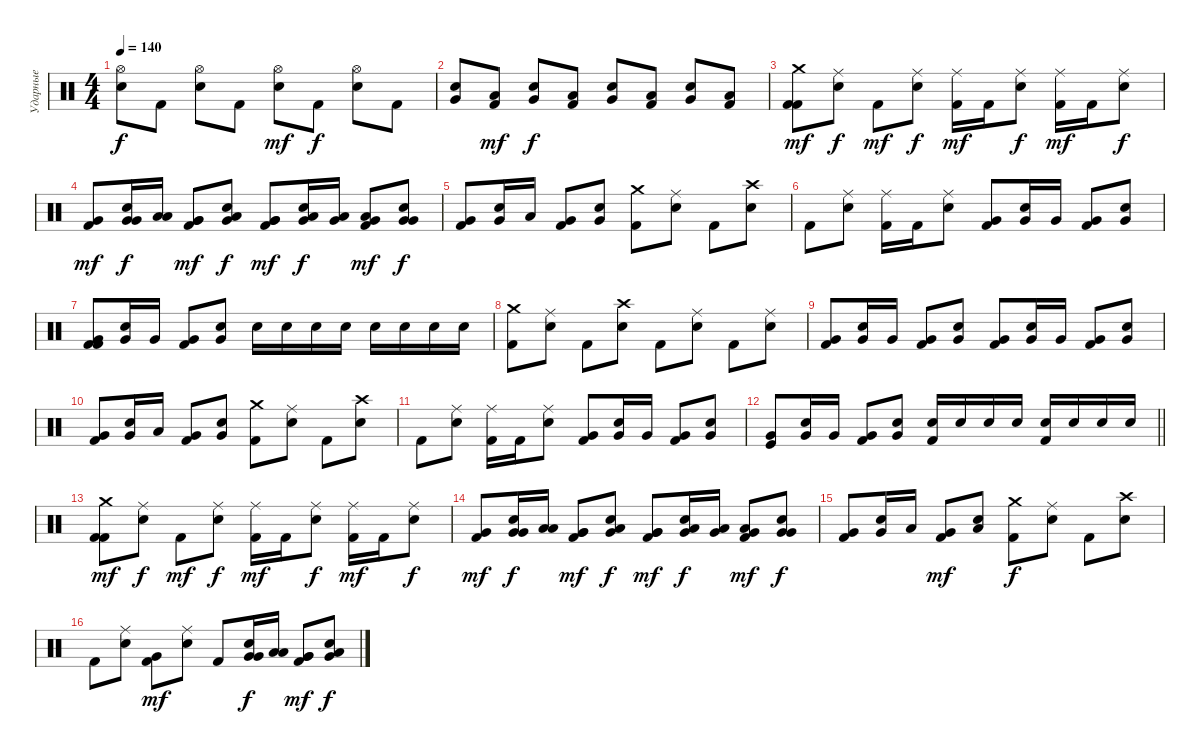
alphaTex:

\track ("Ударные" "Ударные") {instrument percussion}
\staff {score}
\articulation defaults
\ts (4 4)
\tempo 140
\clef neutral
\ks c
("Hi-Hat (open)" "Snare (hit) 2").8{dy f} "Kick (hit) 2".8 ("Hi-Hat (open)" "Snare (hit) 2").8 "Kick (hit) 2".8 ("Hi-Hat (open)" "Snare (hit) 2").8{dy mf} "Kick (hit) 2".8{dy f} ("Hi-Hat (open)" "Snare (hit) 2").8 "Kick (hit) 2".8 |
("Very Low Tom (hit)" "Snare (hit) 2").8 ("Low Tom (hit)" "Kick (hit) 2").8{dy mf} ("Very Low Tom (hit)" "Snare (hit) 2").8{dy f} ("Low Tom (hit)" "Kick (hit) 2").8 ("Very Low Tom (hit)" "Snare (hit) 2").8 ("Low Tom (hit)" "Kick (hit) 2").8 ("Very Low Tom (hit)" "Snare (hit) 2").8 ("Low Tom (hit)" "Kick (hit) 2").8 |
("Crash medium (hit)" "Kick (hit) 2" "Kick (hit) 2").8{dy mf} ("Ride (middle)" "Snare (hit) 2").8{dy f} "Kick (hit) 2".8{dy mf} ("Ride (middle)" "Snare (hit) 2").8{dy f} ("Ride (middle)" "Kick (hit) 2").16{dy mf} "Kick (hit) 2".16 ("Ride (middle)" "Snare (hit) 2").8{dy f} ("Ride (middle)" "Kick (hit) 2").16{dy mf} "Kick (hit) 2".16 ("Ride (middle)" "Snare (hit) 2").8{dy f} |
("Very Low Tom (hit)" "Kick (hit) 2").8{dy mf} ("Very Low Tom (hit)" "Very Low Tom (hit)" "Snare (hit) 2").16{dy f} ("Low Tom (hit)" "Low Tom (hit)").16 ("Very Low Tom (hit)" "Very Low Tom (hit)" "Kick (hit) 2").8{dy mf} ("Very Low Tom (hit)" "Low Tom (hit)" "Snare (hit) 2").8{dy f} ("Very Low Tom (hit)" "Very Low Tom (hit)" "Kick (hit) 2").8{dy mf} ("Very Low Tom (hit)" "Low Tom (hit)" "Snare (hit) 2").16{dy f} ("Low Tom (hit)" "Very Low Tom (hit)").16 ("Very Low Tom (hit)" "Low Tom (hit)" "Kick (hit) 2").8{dy mf} ("Very Low Tom (hit)" "Very Low Tom (hit)" "Snare (hit) 2").8{dy f} |
("Very Low Tom (hit)" "Kick (hit) 2").8 ("Very Low Tom (hit)" "Snare (hit) 2").16 "Low Tom (hit)".16 ("Very Low Tom (hit)" "Kick (hit) 2").8 ("Very Low Tom (hit)" "Snare (hit) 2").8 ("Crash medium (hit)" "Kick (hit) 2").8 ("Ride (middle)" "Snare (hit) 2").8 "Kick (hit) 2".8 ("Crash high (hit)" "Snare (hit) 2").8 |
"Kick (hit) 2".8 ("Ride (middle)" "Snare (hit) 2").8 ("Ride (middle)" "Kick (hit) 2").16 "Kick (hit) 2".16 ("Ride (middle)" "Snare (hit) 2").8 ("Very Low Tom (hit)" "Kick (hit) 2").8 ("Very Low Tom (hit)" "Snare (hit) 2").16 "Very Low Tom (hit)".16 ("Very Low Tom (hit)" "Kick (hit) 2").8 ("Very Low Tom (hit)" "Snare (hit) 2").8 |
("Very Low Tom (hit)" "Kick (hit) 2" "Kick (hit) 2").8 ("Very Low Tom (hit)" "Snare (hit) 2").16 "Very Low Tom (hit)".16 ("Very Low Tom (hit)" "Kick (hit) 2").8 ("Very Low Tom (hit)" "Snare (hit) 2").8 "Snare (hit) 2".16 "Snare (hit) 2".16 "Snare (hit) 2".16 "Snare (hit) 2".16 "Snare (hit) 2".16 "Snare (hit) 2".16 "Snare (hit) 2".16 "Snare (hit) 2".16 |
("Crash medium (hit)" "Kick (hit) 2").8 ("Ride (middle)" "Snare (hit) 2").8 "Kick (hit) 2".8 ("Crash high (hit)" "Snare (hit) 2").8 "Kick (hit) 2".8 ("Ride (middle)" "Snare (hit) 2").8 "Kick (hit) 2".8 ("Ride (middle)" "Snare (hit) 2").8 |
("Very Low Tom (hit)" "Kick (hit) 2").8 ("Very Low Tom (hit)" "Snare (hit) 2").16 "Very Low Tom (hit)".16 ("Very Low Tom (hit)" "Kick (hit) 2").8 ("Very Low Tom (hit)" "Snare (hit) 2").8 ("Very Low Tom (hit)" "Kick (hit) 2").8 ("Very Low Tom (hit)" "Snare (hit) 2").16 "Very Low Tom (hit)".16 ("Very Low Tom (hit)" "Kick (hit) 2").8 ("Very Low Tom (hit)" "Snare (hit) 2").8 |
("Very Low Tom (hit)" "Kick (hit) 2").8 ("Very Low Tom (hit)" "Snare (hit) 2").16 "Low Tom (hit)".16 ("Very Low Tom (hit)" "Kick (hit) 2").8 ("Very Low Tom (hit)" "Snare (hit) 2").8 ("Crash medium (hit)" "Kick (hit) 2").8 ("Ride (middle)" "Snare (hit) 2").8 "Kick (hit) 2".8 ("Crash high (hit)" "Snare (hit) 2").8 |
"Kick (hit) 2".8 ("Ride (middle)" "Snare (hit) 2").8 ("Ride (middle)" "Kick (hit) 2").16 "Kick (hit) 2".16 ("Ride (middle)" "Snare (hit) 2").8 ("Very Low Tom (hit)" "Kick (hit) 2").8 ("Very Low Tom (hit)" "Snare (hit) 2").16 "Very Low Tom (hit)".16 ("Very Low Tom (hit)" "Kick (hit) 2").8 ("Very Low Tom (hit)" "Snare (hit) 2").8 |
\barLineRight lightlight
("Very Low Tom (hit)" "Kick (hit)").8 ("Very Low Tom (hit)" "Snare (hit) 2").16 "Very Low Tom (hit)".16 ("Very Low Tom (hit)" "Kick (hit) 2").8 ("Very Low Tom (hit)" "Snare (hit) 2").8 ("Kick (hit) 2" "Snare (hit) 2").16 "Snare (hit) 2".16 "Snare (hit) 2".16 "Snare (hit) 2".16 ("Kick (hit) 2" "Snare (hit) 2").16 "Snare (hit) 2".16 "Snare (hit) 2".16 "Snare (hit) 2".16 |
("Crash medium (hit)" "Kick (hit) 2" "Kick (hit) 2").8{dy mf} ("Ride (middle)" "Snare (hit) 2").8{dy f} "Kick (hit) 2".8{dy mf} ("Ride (middle)" "Snare (hit) 2").8{dy f} ("Ride (middle)" "Kick (hit) 2").16{dy mf} "Kick (hit) 2".16 ("Ride (middle)" "Snare (hit) 2").8{dy f} ("Ride (middle)" "Kick (hit) 2").16{dy mf} "Kick (hit) 2".16 ("Ride (middle)" "Snare (hit) 2").8{dy f} |
("Very Low Tom (hit)" "Kick (hit) 2").8{dy mf} ("Very Low Tom (hit)" "Very Low Tom (hit)" "Snare (hit) 2").16{dy f} ("Low Tom (hit)" "Low Tom (hit)").16 ("Very Low Tom (hit)" "Very Low Tom (hit)" "Kick (hit) 2").8{dy mf} ("Very Low Tom (hit)" "Low Tom (hit)" "Snare (hit) 2").8{dy f} ("Very Low Tom (hit)" "Very Low Tom (hit)" "Kick (hit) 2").8{dy mf} ("Very Low Tom (hit)" "Low Tom (hit)" "Snare (hit) 2").16{dy f} ("Low Tom (hit)" "Very Low Tom (hit)").16 ("Very Low Tom (hit)" "Low Tom (hit)" "Kick (hit) 2").8{dy mf} ("Very Low Tom (hit)" "Very Low Tom (hit)" "Snare (hit) 2").8{dy f} |
("Very Low Tom (hit)" "Kick (hit) 2").8 ("Very Low Tom (hit)" "Snare (hit) 2").16 "Low Tom (hit)".16 ("Very Low Tom (hit)" "Kick (hit) 2").8{dy mf} ("Low Tom (hit)" "Snare (hit) 2").8 ("Crash medium (hit)" "Kick (hit) 2").8{dy f} ("Ride (middle)" "Snare (hit) 2").8 "Kick (hit) 2".8 ("Crash high (hit)" "Snare (hit) 2").8 |
"Kick (hit) 2".8 ("Ride (middle)" "Snare (hit) 2").8 ("Very Low Tom (hit)" "Kick (hit) 2").8{dy mf} ("Ride (middle)" "Snare (hit) 2").8 "Kick (hit) 2".8 ("Very Low Tom (hit)" "Very Low Tom (hit)" "Snare (hit) 2").16{dy f} ("Low Tom (hit)" "Low Tom (hit)").16 ("Very Low Tom (hit)" "Very Low Tom (hit)" "Kick (hit) 2").8{dy mf} ("Very Low Tom (hit)" "Low Tom (hit)" "Snare (hit) 2").8{dy f}
